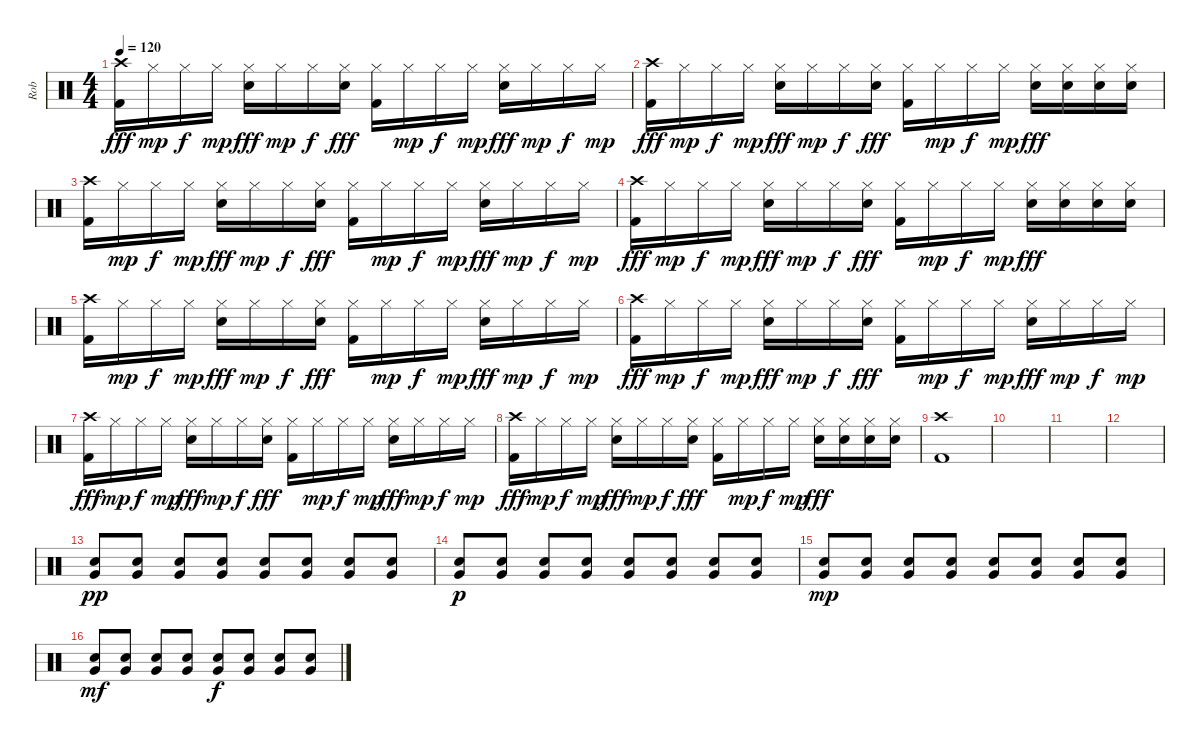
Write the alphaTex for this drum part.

\track ("Rob" "Rob") {instrument percussion}
\staff {score}
\articulation defaults
\ts (4 4)
\tempo 120
\clef neutral
\ks c
("Crash high (hit)" "Kick (hit) 2").16{dy fff} "Hi-Hat (closed)".16{dy mp} "Hi-Hat (closed)".16{dy f} "Hi-Hat (closed)".16{dy mp} ("Hi-Hat (closed)" "Electric Snare (hit)").16{dy fff} "Hi-Hat (closed)".16{dy mp} "Hi-Hat (closed)".16{dy f} ("Hi-Hat (closed)" "Electric Snare (hit)").16{dy fff} ("Hi-Hat (closed)" "Kick (hit) 2").16 "Hi-Hat (closed)".16{dy mp} "Hi-Hat (closed)".16{dy f} "Hi-Hat (closed)".16{dy mp} ("Hi-Hat (closed)" "Electric Snare (hit)").16{dy fff} "Hi-Hat (closed)".16{dy mp} "Hi-Hat (closed)".16{dy f} "Hi-Hat (closed)".16{dy mp} |
("Crash high (hit)" "Kick (hit) 2").16{dy fff} "Hi-Hat (closed)".16{dy mp} "Hi-Hat (closed)".16{dy f} "Hi-Hat (closed)".16{dy mp} ("Hi-Hat (closed)" "Electric Snare (hit)").16{dy fff} "Hi-Hat (closed)".16{dy mp} "Hi-Hat (closed)".16{dy f} ("Hi-Hat (closed)" "Electric Snare (hit)").16{dy fff} ("Hi-Hat (closed)" "Kick (hit) 2").16 "Hi-Hat (closed)".16{dy mp} "Hi-Hat (closed)".16{dy f} "Hi-Hat (closed)".16{dy mp} ("Hi-Hat (closed)" "Electric Snare (hit)").16{dy fff} ("Hi-Hat (closed)" "Electric Snare (hit)").16 ("Hi-Hat (closed)" "Electric Snare (hit)").16 ("Hi-Hat (closed)" "Electric Snare (hit)").16 |
("Crash high (hit)" "Kick (hit) 2").16 "Hi-Hat (closed)".16{dy mp} "Hi-Hat (closed)".16{dy f} "Hi-Hat (closed)".16{dy mp} ("Hi-Hat (closed)" "Electric Snare (hit)").16{dy fff} "Hi-Hat (closed)".16{dy mp} "Hi-Hat (closed)".16{dy f} ("Hi-Hat (closed)" "Electric Snare (hit)").16{dy fff} ("Hi-Hat (closed)" "Kick (hit) 2").16 "Hi-Hat (closed)".16{dy mp} "Hi-Hat (closed)".16{dy f} "Hi-Hat (closed)".16{dy mp} ("Hi-Hat (closed)" "Electric Snare (hit)").16{dy fff} "Hi-Hat (closed)".16{dy mp} "Hi-Hat (closed)".16{dy f} "Hi-Hat (closed)".16{dy mp} |
("Crash high (hit)" "Kick (hit) 2").16{dy fff} "Hi-Hat (closed)".16{dy mp} "Hi-Hat (closed)".16{dy f} "Hi-Hat (closed)".16{dy mp} ("Hi-Hat (closed)" "Electric Snare (hit)").16{dy fff} "Hi-Hat (closed)".16{dy mp} "Hi-Hat (closed)".16{dy f} ("Hi-Hat (closed)" "Electric Snare (hit)").16{dy fff} ("Hi-Hat (closed)" "Kick (hit) 2").16 "Hi-Hat (closed)".16{dy mp} "Hi-Hat (closed)".16{dy f} "Hi-Hat (closed)".16{dy mp} ("Hi-Hat (closed)" "Electric Snare (hit)").16{dy fff} ("Hi-Hat (closed)" "Electric Snare (hit)").16 ("Hi-Hat (closed)" "Electric Snare (hit)").16 ("Hi-Hat (closed)" "Electric Snare (hit)").16 |
("Crash high (hit)" "Kick (hit) 2").16 "Hi-Hat (closed)".16{dy mp} "Hi-Hat (closed)".16{dy f} "Hi-Hat (closed)".16{dy mp} ("Hi-Hat (closed)" "Electric Snare (hit)").16{dy fff} "Hi-Hat (closed)".16{dy mp} "Hi-Hat (closed)".16{dy f} ("Hi-Hat (closed)" "Electric Snare (hit)").16{dy fff} ("Hi-Hat (closed)" "Kick (hit) 2").16 "Hi-Hat (closed)".16{dy mp} "Hi-Hat (closed)".16{dy f} "Hi-Hat (closed)".16{dy mp} ("Hi-Hat (closed)" "Electric Snare (hit)").16{dy fff} "Hi-Hat (closed)".16{dy mp} "Hi-Hat (closed)".16{dy f} "Hi-Hat (closed)".16{dy mp} |
("Crash high (hit)" "Kick (hit) 2").16{dy fff} "Hi-Hat (closed)".16{dy mp} "Hi-Hat (closed)".16{dy f} "Hi-Hat (closed)".16{dy mp} ("Hi-Hat (closed)" "Electric Snare (hit)").16{dy fff} "Hi-Hat (closed)".16{dy mp} "Hi-Hat (closed)".16{dy f} ("Hi-Hat (closed)" "Electric Snare (hit)").16{dy fff} ("Hi-Hat (closed)" "Kick (hit) 2").16 "Hi-Hat (closed)".16{dy mp} "Hi-Hat (closed)".16{dy f} "Hi-Hat (closed)".16{dy mp} ("Hi-Hat (closed)" "Electric Snare (hit)").16{dy fff} "Hi-Hat (closed)".16{dy mp} "Hi-Hat (closed)".16{dy f} "Hi-Hat (closed)".16{dy mp} |
("Crash high (hit)" "Kick (hit) 2").16{dy fff} "Hi-Hat (closed)".16{dy mp} "Hi-Hat (closed)".16{dy f} "Hi-Hat (closed)".16{dy mp} ("Hi-Hat (closed)" "Electric Snare (hit)").16{dy fff} "Hi-Hat (closed)".16{dy mp} "Hi-Hat (closed)".16{dy f} ("Hi-Hat (closed)" "Electric Snare (hit)").16{dy fff} ("Hi-Hat (closed)" "Kick (hit) 2").16 "Hi-Hat (closed)".16{dy mp} "Hi-Hat (closed)".16{dy f} "Hi-Hat (closed)".16{dy mp} ("Hi-Hat (closed)" "Electric Snare (hit)").16{dy fff} "Hi-Hat (closed)".16{dy mp} "Hi-Hat (closed)".16{dy f} "Hi-Hat (closed)".16{dy mp} |
("Crash high (hit)" "Kick (hit) 2").16{dy fff} "Hi-Hat (closed)".16{dy mp} "Hi-Hat (closed)".16{dy f} "Hi-Hat (closed)".16{dy mp} ("Hi-Hat (closed)" "Electric Snare (hit)").16{dy fff} "Hi-Hat (closed)".16{dy mp} "Hi-Hat (closed)".16{dy f} ("Hi-Hat (closed)" "Electric Snare (hit)").16{dy fff} ("Hi-Hat (closed)" "Kick (hit) 2").16 "Hi-Hat (closed)".16{dy mp} "Hi-Hat (closed)".16{dy f} "Hi-Hat (closed)".16{dy mp} ("Hi-Hat (closed)" "Electric Snare (hit)").16{dy fff} ("Hi-Hat (closed)" "Electric Snare (hit)").16 ("Hi-Hat (closed)" "Electric Snare (hit)").16 ("Hi-Hat (closed)" "Electric Snare (hit)").16 |
("Crash high (hit)" "Kick (hit) 2").1 |
|
|
|
("Very Low Tom (hit)" "Electric Snare (hit)").8{dy pp} ("Very Low Tom (hit)" "Electric Snare (hit)").8 ("Very Low Tom (hit)" "Electric Snare (hit)").8 ("Very Low Tom (hit)" "Electric Snare (hit)").8 ("Very Low Tom (hit)" "Electric Snare (hit)").8 ("Very Low Tom (hit)" "Electric Snare (hit)").8 ("Very Low Tom (hit)" "Electric Snare (hit)").8 ("Very Low Tom (hit)" "Electric Snare (hit)").8 |
("Very Low Tom (hit)" "Electric Snare (hit)").8{dy p} ("Very Low Tom (hit)" "Electric Snare (hit)").8 ("Very Low Tom (hit)" "Electric Snare (hit)").8 ("Very Low Tom (hit)" "Electric Snare (hit)").8 ("Very Low Tom (hit)" "Electric Snare (hit)").8 ("Very Low Tom (hit)" "Electric Snare (hit)").8 ("Very Low Tom (hit)" "Electric Snare (hit)").8 ("Very Low Tom (hit)" "Electric Snare (hit)").8 |
("Very Low Tom (hit)" "Electric Snare (hit)").8{dy mp} ("Very Low Tom (hit)" "Electric Snare (hit)").8 ("Very Low Tom (hit)" "Electric Snare (hit)").8 ("Very Low Tom (hit)" "Electric Snare (hit)").8 ("Very Low Tom (hit)" "Electric Snare (hit)").8 ("Very Low Tom (hit)" "Electric Snare (hit)").8 ("Very Low Tom (hit)" "Electric Snare (hit)").8 ("Very Low Tom (hit)" "Electric Snare (hit)").8 |
("Very Low Tom (hit)" "Electric Snare (hit)").8{dy mf} ("Very Low Tom (hit)" "Electric Snare (hit)").8 ("Very Low Tom (hit)" "Electric Snare (hit)").8 ("Very Low Tom (hit)" "Electric Snare (hit)").8 ("Very Low Tom (hit)" "Electric Snare (hit)").8{dy f} ("Very Low Tom (hit)" "Electric Snare (hit)").8 ("Very Low Tom (hit)" "Electric Snare (hit)").8 ("Very Low Tom (hit)" "Electric Snare (hit)").8
